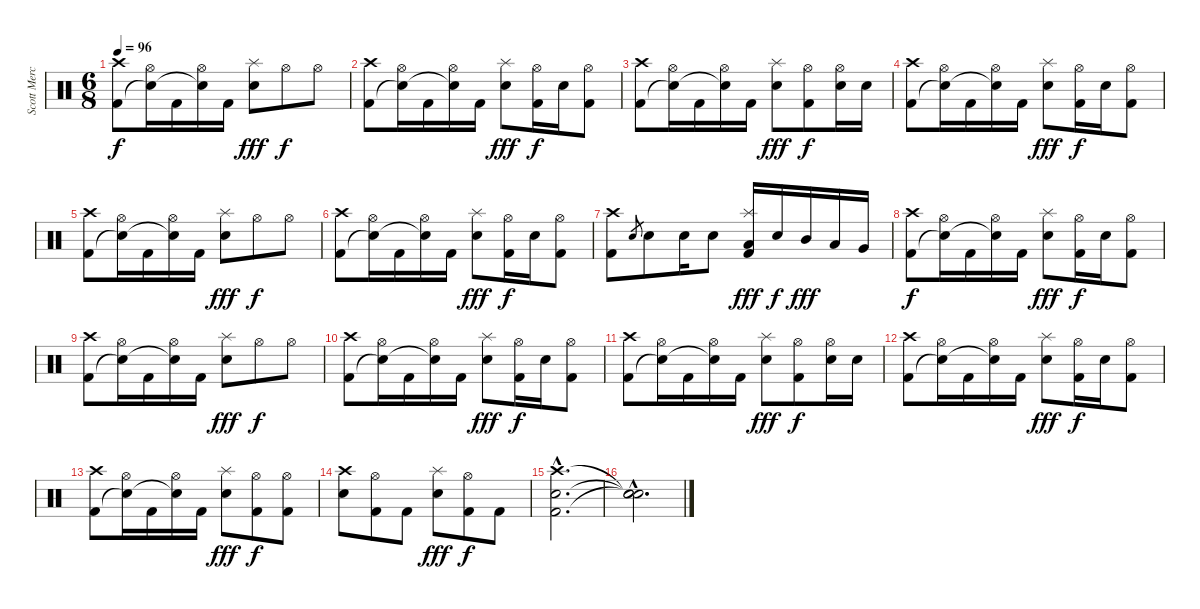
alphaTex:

\track ("Scott Mercado Drums" "Scott Merc") {instrument percussion}
\staff {score}
\articulation defaults
\ts (6 8)
\tempo 96
\clef neutral
\ks c
("Crash high (hit)" "Kick (hit) 2").8{dy f} ("Hi-Hat (open)" "Snare (hit)"{t}).16 "Kick (hit) 2".16 ("Hi-Hat (open)" "Snare (hit)"{t}).16 "Kick (hit) 2".16 ("Splash (hit)" "Electric Snare (hit)").8{dy fff} "Hi-Hat (open)".8{dy f} "Hi-Hat (open)".8 |
("Crash high (hit)" "Kick (hit) 2").8 ("Hi-Hat (open)" "Snare (hit)"{t}).16 "Kick (hit) 2".16 ("Hi-Hat (open)" "Snare (hit)"{t}).16 "Kick (hit) 2".16 ("Splash (hit)" "Electric Snare (hit)").8{dy fff} ("Hi-Hat (open)" "Kick (hit) 2").16{dy f} "Electric Snare (hit)".16 ("Hi-Hat (open)" "Kick (hit) 2").8 |
("Crash high (hit)" "Kick (hit) 2").8 ("Hi-Hat (open)" "Snare (hit)"{t}).16 "Kick (hit) 2".16 ("Hi-Hat (open)" "Snare (hit)"{t}).16 "Kick (hit) 2".16 ("Splash (hit)" "Electric Snare (hit)").8{dy fff} ("Hi-Hat (open)" "Kick (hit) 2").8{dy f} ("Hi-Hat (open)" "Electric Snare (hit)").16 "Electric Snare (hit)".16 |
("Crash high (hit)" "Kick (hit) 2").8 ("Hi-Hat (open)" "Snare (hit)"{t}).16 "Kick (hit) 2".16 ("Hi-Hat (open)" "Snare (hit)"{t}).16 "Kick (hit) 2".16 ("Splash (hit)" "Electric Snare (hit)").8{dy fff} ("Hi-Hat (open)" "Kick (hit) 2").16{dy f} "Electric Snare (hit)".16 ("Hi-Hat (open)" "Kick (hit) 2").8 |
("Crash high (hit)" "Kick (hit) 2").8 ("Hi-Hat (open)" "Snare (hit)"{t}).16 "Kick (hit) 2".16 ("Hi-Hat (open)" "Snare (hit)"{t}).16 "Kick (hit) 2".16 ("Splash (hit)" "Electric Snare (hit)").8{dy fff} "Hi-Hat (open)".8{dy f} "Hi-Hat (open)".8 |
("Crash high (hit)" "Kick (hit) 2").8 ("Hi-Hat (open)" "Snare (hit)"{t}).16 "Kick (hit) 2".16 ("Hi-Hat (open)" "Snare (hit)"{t}).16 "Kick (hit) 2".16 ("Splash (hit)" "Electric Snare (hit)").8{dy fff} ("Hi-Hat (open)" "Kick (hit) 2").16{dy f} "Electric Snare (hit)".16 ("Hi-Hat (open)" "Kick (hit) 2").8 |
("Crash high (hit)" "Kick (hit) 2").8 "Electric Snare (hit)".8{gr} "Electric Snare (hit)".8 "Electric Snare (hit)".16 "Electric Snare (hit)".8 ("Splash (hit)" "Low Tom (hit)" "Kick (hit) 2").16{dy fff} "Electric Snare (hit)".16{dy f} "Mid Tom (hit)".16{dy fff} "Low Tom (hit)".16 "Very Low Tom (hit)".16 |
("Crash high (hit)" "Kick (hit) 2").8{dy f} ("Hi-Hat (open)" "Snare (hit)"{t}).16 "Kick (hit) 2".16 ("Hi-Hat (open)" "Snare (hit)"{t}).16 "Kick (hit) 2".16 ("Splash (hit)" "Electric Snare (hit)").8{dy fff} ("Hi-Hat (open)" "Kick (hit) 2").16{dy f} "Electric Snare (hit)".16 ("Hi-Hat (open)" "Kick (hit) 2").8 |
("Crash high (hit)" "Kick (hit) 2").8 ("Hi-Hat (open)" "Snare (hit)"{t}).16 "Kick (hit) 2".16 ("Hi-Hat (open)" "Snare (hit)"{t}).16 "Kick (hit) 2".16 ("Splash (hit)" "Electric Snare (hit)").8{dy fff} "Hi-Hat (open)".8{dy f} "Hi-Hat (open)".8 |
("Crash high (hit)" "Kick (hit) 2").8 ("Hi-Hat (open)" "Snare (hit)"{t}).16 "Kick (hit) 2".16 ("Hi-Hat (open)" "Snare (hit)"{t}).16 "Kick (hit) 2".16 ("Splash (hit)" "Electric Snare (hit)").8{dy fff} ("Hi-Hat (open)" "Kick (hit) 2").16{dy f} "Electric Snare (hit)".16 ("Hi-Hat (open)" "Kick (hit) 2").8 |
("Crash high (hit)" "Kick (hit) 2").8 ("Hi-Hat (open)" "Snare (hit)"{t}).16 "Kick (hit) 2".16 ("Hi-Hat (open)" "Snare (hit)"{t}).16 "Kick (hit) 2".16 ("Splash (hit)" "Electric Snare (hit)").8{dy fff} ("Hi-Hat (open)" "Kick (hit) 2").8{dy f} ("Hi-Hat (open)" "Electric Snare (hit)").16 "Electric Snare (hit)".16 |
("Crash high (hit)" "Kick (hit) 2").8 ("Hi-Hat (open)" "Snare (hit)"{t}).16 "Kick (hit) 2".16 ("Hi-Hat (open)" "Snare (hit)"{t}).16 "Kick (hit) 2".16 ("Splash (hit)" "Electric Snare (hit)").8{dy fff} ("Hi-Hat (open)" "Kick (hit) 2").16{dy f} "Electric Snare (hit)".16 ("Hi-Hat (open)" "Kick (hit) 2").8 |
("Crash high (hit)" "Kick (hit) 2").8 ("Hi-Hat (open)" "Snare (hit)"{t}).16 "Kick (hit) 2".16 ("Hi-Hat (open)" "Snare (hit)"{t}).16 "Kick (hit) 2".16 ("Splash (hit)" "Electric Snare (hit)").8{dy fff} ("Hi-Hat (open)" "Kick (hit) 2").8{dy f} ("Hi-Hat (open)" "Kick (hit) 2").8 |
("Crash high (hit)" "Electric Snare (hit)").8 ("Hi-Hat (open)" "Kick (hit) 2").8 "Kick (hit) 2".8 ("Splash (hit)" "Electric Snare (hit)").8{dy fff} ("Hi-Hat (open)" "Kick (hit) 2").8{dy f} "Kick (hit) 2".8 |
("Crash high (hit)"{hac} "Electric Snare (hit)"{hac} "Kick (hit) 2"{hac}).2{d} |
("Snare (hit)"{hac t} "Snare (hit)"{hac t} "Snare (hit)"{hac t}).2{d}
